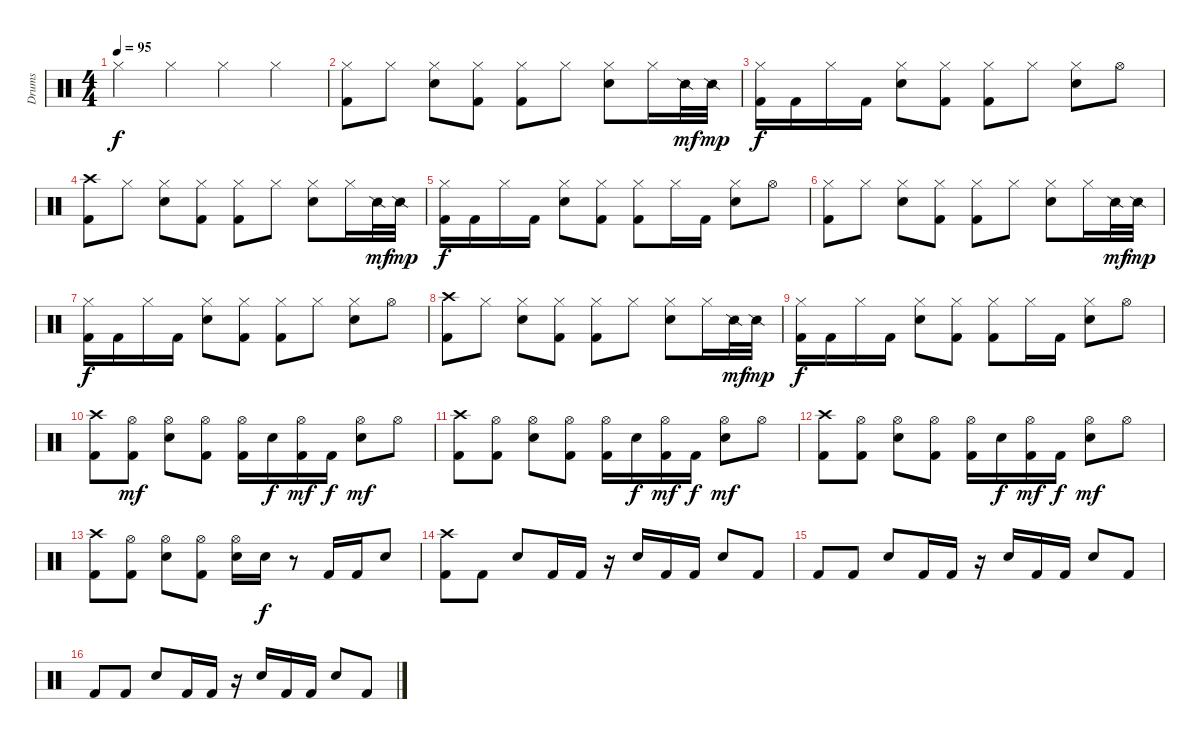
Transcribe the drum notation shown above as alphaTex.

\track ("Drums" "Drums") {instrument percussion}
\staff {score}
\articulation defaults
\ts (4 4)
\tempo 95
\clef neutral
\ks c "Hi-Hat (closed)".4{dy f} "Hi-Hat (closed)".4 "Hi-Hat (closed)".4 "Hi-Hat (closed)".4
|
("Hi-Hat (closed)" "Kick (hit) 2").8 "Hi-Hat (closed)".8 ("Hi-Hat (closed)" "Electric Snare (hit)").8 ("Hi-Hat (closed)" "Kick (hit) 2").8 ("Hi-Hat (closed)" "Kick (hit) 2").8 "Hi-Hat (closed)".8 ("Hi-Hat (closed)" "Electric Snare (hit)").8 "Hi-Hat (closed)".16 "Snare (side stick) 2".32{dy mf} "Snare (side stick) 2".32{dy mp} |
("Hi-Hat (closed)" "Kick (hit) 2").16{dy f} "Kick (hit) 2".16 "Hi-Hat (closed)".16 "Kick (hit) 2".16 ("Hi-Hat (closed)" "Electric Snare (hit)").8 ("Hi-Hat (closed)" "Kick (hit) 2").8 ("Hi-Hat (closed)" "Kick (hit) 2").8 "Hi-Hat (closed)".8 ("Hi-Hat (closed)" "Electric Snare (hit)").8 "Hi-Hat (open)".8 |
("Crash high (hit)" "Kick (hit) 2").8 "Hi-Hat (closed)".8 ("Hi-Hat (closed)" "Electric Snare (hit)").8 ("Hi-Hat (closed)" "Kick (hit) 2").8 ("Hi-Hat (closed)" "Kick (hit) 2").8 "Hi-Hat (closed)".8 ("Hi-Hat (closed)" "Electric Snare (hit)").8 "Hi-Hat (closed)".16 "Snare (side stick) 2".32{dy mf} "Snare (side stick) 2".32{dy mp} |
("Hi-Hat (closed)" "Kick (hit) 2").16{dy f} "Kick (hit) 2".16 "Hi-Hat (closed)".16 "Kick (hit) 2".16 ("Hi-Hat (closed)" "Electric Snare (hit)").8 ("Hi-Hat (closed)" "Kick (hit) 2").8 ("Hi-Hat (closed)" "Kick (hit) 2").8 "Hi-Hat (closed)".16 "Kick (hit) 2".16 ("Hi-Hat (closed)" "Electric Snare (hit)").8 "Hi-Hat (open)".8 |
("Hi-Hat (closed)" "Kick (hit) 2").8 "Hi-Hat (closed)".8 ("Hi-Hat (closed)" "Electric Snare (hit)").8 ("Hi-Hat (closed)" "Kick (hit) 2").8 ("Hi-Hat (closed)" "Kick (hit) 2").8 "Hi-Hat (closed)".8 ("Hi-Hat (closed)" "Electric Snare (hit)").8 "Hi-Hat (closed)".16 "Snare (side stick) 2".32{dy mf} "Snare (side stick) 2".32{dy mp} |
("Hi-Hat (closed)" "Kick (hit) 2").16{dy f} "Kick (hit) 2".16 "Hi-Hat (closed)".16 "Kick (hit) 2".16 ("Hi-Hat (closed)" "Electric Snare (hit)").8 ("Hi-Hat (closed)" "Kick (hit) 2").8 ("Hi-Hat (closed)" "Kick (hit) 2").8 "Hi-Hat (closed)".8 ("Hi-Hat (closed)" "Electric Snare (hit)").8 "Hi-Hat (open)".8 |
("Crash high (hit)" "Kick (hit) 2").8 "Hi-Hat (closed)".8 ("Hi-Hat (closed)" "Electric Snare (hit)").8 ("Hi-Hat (closed)" "Kick (hit) 2").8 ("Hi-Hat (closed)" "Kick (hit) 2").8 "Hi-Hat (closed)".8 ("Hi-Hat (closed)" "Electric Snare (hit)").8 "Hi-Hat (closed)".16 "Snare (side stick) 2".32{dy mf} "Snare (side stick) 2".32{dy mp} |
("Hi-Hat (closed)" "Kick (hit) 2").16{dy f} "Kick (hit) 2".16 "Hi-Hat (closed)".16 "Kick (hit) 2".16 ("Hi-Hat (closed)" "Electric Snare (hit)").8 ("Hi-Hat (closed)" "Kick (hit) 2").8 ("Hi-Hat (closed)" "Kick (hit) 2").8 "Hi-Hat (closed)".16 "Kick (hit) 2".16 ("Hi-Hat (closed)" "Electric Snare (hit)").8 "Hi-Hat (open)".8 |
("Crash high (hit)" "Kick (hit) 2").8 ("Hi-Hat (open)" "Kick (hit) 2").8{dy mf} ("Hi-Hat (open)" "Electric Snare (hit)").8 ("Hi-Hat (open)" "Kick (hit) 2").8 ("Hi-Hat (open)" "Kick (hit) 2").16 "Electric Snare (hit)".16{dy f} ("Hi-Hat (open)" "Kick (hit) 2").16{dy mf} "Kick (hit) 2".16{dy f} ("Hi-Hat (open)" "Electric Snare (hit)").8{dy mf} "Hi-Hat (open)".8 |
("Crash high (hit)" "Kick (hit) 2").8 ("Hi-Hat (open)" "Kick (hit) 2").8 ("Hi-Hat (open)" "Electric Snare (hit)").8 ("Hi-Hat (open)" "Kick (hit) 2").8 ("Hi-Hat (open)" "Kick (hit) 2").16 "Electric Snare (hit)".16{dy f} ("Hi-Hat (open)" "Kick (hit) 2").16{dy mf} "Kick (hit) 2".16{dy f} ("Hi-Hat (open)" "Electric Snare (hit)").8{dy mf} "Hi-Hat (open)".8 |
("Crash high (hit)" "Kick (hit) 2").8 ("Hi-Hat (open)" "Kick (hit) 2").8 ("Hi-Hat (open)" "Electric Snare (hit)").8 ("Hi-Hat (open)" "Kick (hit) 2").8 ("Hi-Hat (open)" "Kick (hit) 2").16 "Electric Snare (hit)".16{dy f} ("Hi-Hat (open)" "Kick (hit) 2").16{dy mf} "Kick (hit) 2".16{dy f} ("Hi-Hat (open)" "Electric Snare (hit)").8{dy mf} "Hi-Hat (open)".8 |
("Crash high (hit)" "Kick (hit) 2").8 ("Hi-Hat (open)" "Kick (hit) 2").8 ("Hi-Hat (open)" "Electric Snare (hit)").8 ("Hi-Hat (open)" "Kick (hit) 2").8 ("Hi-Hat (open)" "Electric Snare (hit)").16 "Electric Snare (hit)".16{dy f} r.8 "Kick (hit) 2".16 "Kick (hit) 2".16 "Electric Snare (hit)".8 |
("Crash high (hit)" "Kick (hit) 2").8 "Kick (hit) 2".8 "Electric Snare (hit)".8 "Kick (hit) 2".16 "Kick (hit) 2".16 r.16 "Electric Snare (hit)".16 "Kick (hit) 2".16 "Kick (hit) 2".16 "Electric Snare (hit)".8 "Kick (hit) 2".8 |
"Kick (hit) 2".8 "Kick (hit) 2".8 "Electric Snare (hit)".8 "Kick (hit) 2".16 "Kick (hit) 2".16 r.16 "Electric Snare (hit)".16 "Kick (hit) 2".16 "Kick (hit) 2".16 "Electric Snare (hit)".8 "Kick (hit) 2".8 |
"Kick (hit) 2".8 "Kick (hit) 2".8 "Electric Snare (hit)".8 "Kick (hit) 2".16 "Kick (hit) 2".16 r.16 "Electric Snare (hit)".16 "Kick (hit) 2".16 "Kick (hit) 2".16 "Electric Snare (hit)".8 "Kick (hit) 2".8
